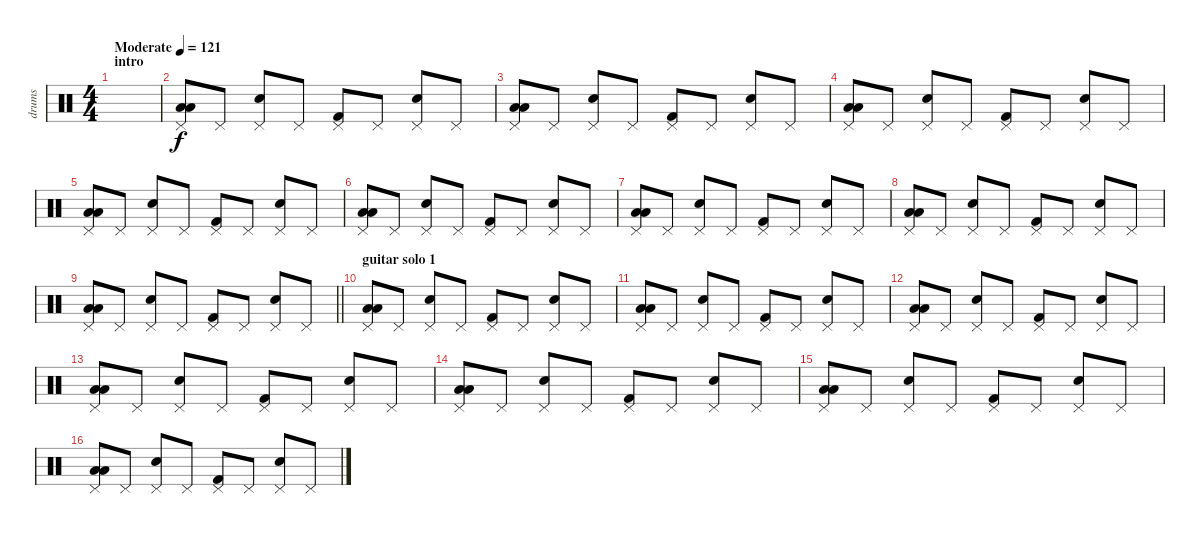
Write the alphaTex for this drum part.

\track ("drums" "drums") {instrument percussion}
\staff {score}
\articulation defaults
\ts (4 4)
\section ("" "intro")
\tempo (121 "Moderate")
\clef neutral
\ks c
|
("Low Floor Tom (hit)" "Low Floor Tom (hit)" "Pedal Hi-Hat (hit)").8 "Pedal Hi-Hat (hit)".8 ("Hand Clap (hit)" "Pedal Hi-Hat (hit)").8 "Pedal Hi-Hat (hit)".8 ("Kick (hit) 2" "Pedal Hi-Hat (hit)").8 "Pedal Hi-Hat (hit)".8 ("Snare (hit) 2" "Pedal Hi-Hat (hit)").8 "Pedal Hi-Hat (hit)".8 |
("Low Floor Tom (hit)" "Low Floor Tom (hit)" "Pedal Hi-Hat (hit)").8 "Pedal Hi-Hat (hit)".8 ("Hand Clap (hit)" "Pedal Hi-Hat (hit)").8 "Pedal Hi-Hat (hit)".8 ("Kick (hit) 2" "Pedal Hi-Hat (hit)").8 "Pedal Hi-Hat (hit)".8 ("Snare (hit) 2" "Pedal Hi-Hat (hit)").8 "Pedal Hi-Hat (hit)".8 |
("Low Floor Tom (hit)" "Low Floor Tom (hit)" "Pedal Hi-Hat (hit)").8 "Pedal Hi-Hat (hit)".8 ("Hand Clap (hit)" "Pedal Hi-Hat (hit)").8 "Pedal Hi-Hat (hit)".8 ("Kick (hit) 2" "Pedal Hi-Hat (hit)").8 "Pedal Hi-Hat (hit)".8 ("Snare (hit) 2" "Pedal Hi-Hat (hit)").8 "Pedal Hi-Hat (hit)".8 |
("Low Floor Tom (hit)" "Low Floor Tom (hit)" "Pedal Hi-Hat (hit)").8 "Pedal Hi-Hat (hit)".8 ("Hand Clap (hit)" "Pedal Hi-Hat (hit)").8 "Pedal Hi-Hat (hit)".8 ("Kick (hit) 2" "Pedal Hi-Hat (hit)").8 "Pedal Hi-Hat (hit)".8 ("Snare (hit) 2" "Pedal Hi-Hat (hit)").8 "Pedal Hi-Hat (hit)".8 |
("Low Floor Tom (hit)" "Low Floor Tom (hit)" "Pedal Hi-Hat (hit)").8 "Pedal Hi-Hat (hit)".8 ("Hand Clap (hit)" "Pedal Hi-Hat (hit)").8 "Pedal Hi-Hat (hit)".8 ("Kick (hit) 2" "Pedal Hi-Hat (hit)").8 "Pedal Hi-Hat (hit)".8 ("Snare (hit) 2" "Pedal Hi-Hat (hit)").8 "Pedal Hi-Hat (hit)".8 |
("Low Floor Tom (hit)" "Low Floor Tom (hit)" "Pedal Hi-Hat (hit)").8 "Pedal Hi-Hat (hit)".8 ("Hand Clap (hit)" "Pedal Hi-Hat (hit)").8 "Pedal Hi-Hat (hit)".8 ("Kick (hit) 2" "Pedal Hi-Hat (hit)").8 "Pedal Hi-Hat (hit)".8 ("Snare (hit) 2" "Pedal Hi-Hat (hit)").8 "Pedal Hi-Hat (hit)".8 |
("Low Floor Tom (hit)" "Low Floor Tom (hit)" "Pedal Hi-Hat (hit)").8 "Pedal Hi-Hat (hit)".8 ("Hand Clap (hit)" "Pedal Hi-Hat (hit)").8 "Pedal Hi-Hat (hit)".8 ("Kick (hit) 2" "Pedal Hi-Hat (hit)").8 "Pedal Hi-Hat (hit)".8 ("Snare (hit) 2" "Pedal Hi-Hat (hit)").8 "Pedal Hi-Hat (hit)".8 |
\barLineRight lightlight
("Low Floor Tom (hit)" "Low Floor Tom (hit)" "Pedal Hi-Hat (hit)").8 "Pedal Hi-Hat (hit)".8 ("Hand Clap (hit)" "Pedal Hi-Hat (hit)").8 "Pedal Hi-Hat (hit)".8 ("Kick (hit) 2" "Pedal Hi-Hat (hit)").8 "Pedal Hi-Hat (hit)".8 ("Snare (hit) 2" "Pedal Hi-Hat (hit)").8 "Pedal Hi-Hat (hit)".8 |
\section ("" "guitar solo 1")
("Low Floor Tom (hit)" "Low Floor Tom (hit)" "Pedal Hi-Hat (hit)").8 "Pedal Hi-Hat (hit)".8 ("Hand Clap (hit)" "Pedal Hi-Hat (hit)").8 "Pedal Hi-Hat (hit)".8 ("Kick (hit) 2" "Pedal Hi-Hat (hit)").8 "Pedal Hi-Hat (hit)".8 ("Snare (hit) 2" "Pedal Hi-Hat (hit)").8 "Pedal Hi-Hat (hit)".8 |
("Low Floor Tom (hit)" "Low Floor Tom (hit)" "Pedal Hi-Hat (hit)").8 "Pedal Hi-Hat (hit)".8 ("Hand Clap (hit)" "Pedal Hi-Hat (hit)").8 "Pedal Hi-Hat (hit)".8 ("Kick (hit) 2" "Pedal Hi-Hat (hit)").8 "Pedal Hi-Hat (hit)".8 ("Snare (hit) 2" "Pedal Hi-Hat (hit)").8 "Pedal Hi-Hat (hit)".8 |
("Low Floor Tom (hit)" "Low Floor Tom (hit)" "Pedal Hi-Hat (hit)").8 "Pedal Hi-Hat (hit)".8 ("Hand Clap (hit)" "Pedal Hi-Hat (hit)").8 "Pedal Hi-Hat (hit)".8 ("Kick (hit) 2" "Pedal Hi-Hat (hit)").8 "Pedal Hi-Hat (hit)".8 ("Snare (hit) 2" "Pedal Hi-Hat (hit)").8 "Pedal Hi-Hat (hit)".8 |
("Low Floor Tom (hit)" "Low Floor Tom (hit)" "Pedal Hi-Hat (hit)").8 "Pedal Hi-Hat (hit)".8 ("Hand Clap (hit)" "Pedal Hi-Hat (hit)").8 "Pedal Hi-Hat (hit)".8 ("Kick (hit) 2" "Pedal Hi-Hat (hit)").8 "Pedal Hi-Hat (hit)".8 ("Snare (hit) 2" "Pedal Hi-Hat (hit)").8 "Pedal Hi-Hat (hit)".8 |
("Low Floor Tom (hit)" "Low Floor Tom (hit)" "Pedal Hi-Hat (hit)").8 "Pedal Hi-Hat (hit)".8 ("Hand Clap (hit)" "Pedal Hi-Hat (hit)").8 "Pedal Hi-Hat (hit)".8 ("Kick (hit) 2" "Pedal Hi-Hat (hit)").8 "Pedal Hi-Hat (hit)".8 ("Snare (hit) 2" "Pedal Hi-Hat (hit)").8 "Pedal Hi-Hat (hit)".8 |
("Low Floor Tom (hit)" "Low Floor Tom (hit)" "Pedal Hi-Hat (hit)").8 "Pedal Hi-Hat (hit)".8 ("Hand Clap (hit)" "Pedal Hi-Hat (hit)").8 "Pedal Hi-Hat (hit)".8 ("Kick (hit) 2" "Pedal Hi-Hat (hit)").8 "Pedal Hi-Hat (hit)".8 ("Snare (hit) 2" "Pedal Hi-Hat (hit)").8 "Pedal Hi-Hat (hit)".8 |
("Low Floor Tom (hit)" "Low Floor Tom (hit)" "Pedal Hi-Hat (hit)").8 "Pedal Hi-Hat (hit)".8 ("Hand Clap (hit)" "Pedal Hi-Hat (hit)").8 "Pedal Hi-Hat (hit)".8 ("Kick (hit) 2" "Pedal Hi-Hat (hit)").8 "Pedal Hi-Hat (hit)".8 ("Snare (hit) 2" "Pedal Hi-Hat (hit)").8 "Pedal Hi-Hat (hit)".8
